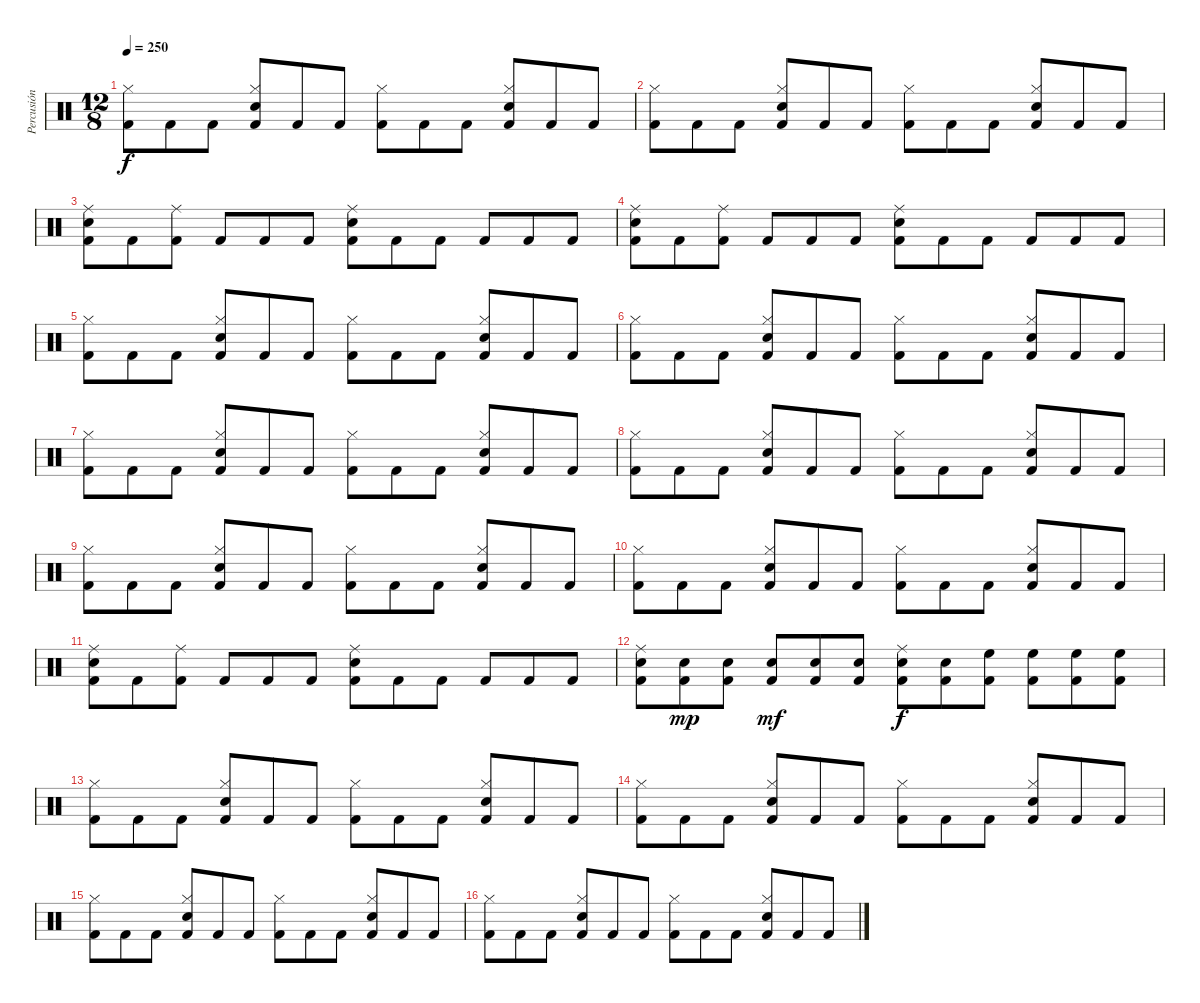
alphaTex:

\track ("Percusión" "Percusión") {instrument percussion}
\staff {score}
\articulation defaults
\ts (12 8)
\tempo 250
\clef neutral
\ks c
("Kick (hit) 2" "Hi-Hat (closed)").8{dy f} "Kick (hit) 2".8 "Kick (hit) 2".8 ("Kick (hit) 2" "Hi-Hat (closed)" "Snare (hit) 2").8 "Kick (hit) 2".8 "Kick (hit) 2".8 ("Kick (hit) 2" "Hi-Hat (closed)").8 "Kick (hit) 2".8 "Kick (hit) 2".8 ("Kick (hit) 2" "Hi-Hat (closed)" "Snare (hit) 2").8 "Kick (hit) 2".8 "Kick (hit) 2".8 |
("Kick (hit) 2" "Hi-Hat (closed)").8 "Kick (hit) 2".8 "Kick (hit) 2".8 ("Kick (hit) 2" "Hi-Hat (closed)" "Snare (hit) 2").8 "Kick (hit) 2".8 "Kick (hit) 2".8 ("Kick (hit) 2" "Hi-Hat (closed)").8 "Kick (hit) 2".8 "Kick (hit) 2".8 ("Kick (hit) 2" "Hi-Hat (closed)" "Snare (hit) 2").8 "Kick (hit) 2".8 "Kick (hit) 2".8 |
("Kick (hit) 2" "Ride (middle)" "Snare (hit) 2").8 "Kick (hit) 2".8 ("Kick (hit) 2" "Ride (middle)").8 "Kick (hit) 2".8 "Kick (hit) 2".8 "Kick (hit) 2".8 ("Kick (hit) 2" "Ride (middle)" "Snare (hit) 2").8 "Kick (hit) 2".8 "Kick (hit) 2".8 "Kick (hit) 2".8 "Kick (hit) 2".8 "Kick (hit) 2".8 |
("Kick (hit) 2" "Ride (middle)" "Snare (hit) 2").8 "Kick (hit) 2".8 ("Kick (hit) 2" "Ride (middle)").8 "Kick (hit) 2".8 "Kick (hit) 2".8 "Kick (hit) 2".8 ("Kick (hit) 2" "Ride (middle)" "Snare (hit) 2").8 "Kick (hit) 2".8 "Kick (hit) 2".8 "Kick (hit) 2".8 "Kick (hit) 2".8 "Kick (hit) 2".8 |
("Kick (hit) 2" "Hi-Hat (closed)").8 "Kick (hit) 2".8 "Kick (hit) 2".8 ("Kick (hit) 2" "Hi-Hat (closed)" "Snare (hit) 2").8 "Kick (hit) 2".8 "Kick (hit) 2".8 ("Kick (hit) 2" "Hi-Hat (closed)").8 "Kick (hit) 2".8 "Kick (hit) 2".8 ("Kick (hit) 2" "Hi-Hat (closed)" "Snare (hit) 2").8 "Kick (hit) 2".8 "Kick (hit) 2".8 |
("Kick (hit) 2" "Hi-Hat (closed)").8 "Kick (hit) 2".8 "Kick (hit) 2".8 ("Kick (hit) 2" "Hi-Hat (closed)" "Snare (hit) 2").8 "Kick (hit) 2".8 "Kick (hit) 2".8 ("Kick (hit) 2" "Hi-Hat (closed)").8 "Kick (hit) 2".8 "Kick (hit) 2".8 ("Kick (hit) 2" "Hi-Hat (closed)" "Snare (hit) 2").8 "Kick (hit) 2".8 "Kick (hit) 2".8 |
("Kick (hit) 2" "Hi-Hat (closed)").8 "Kick (hit) 2".8 "Kick (hit) 2".8 ("Kick (hit) 2" "Hi-Hat (closed)" "Snare (hit) 2").8 "Kick (hit) 2".8 "Kick (hit) 2".8 ("Kick (hit) 2" "Hi-Hat (closed)").8 "Kick (hit) 2".8 "Kick (hit) 2".8 ("Kick (hit) 2" "Hi-Hat (closed)" "Snare (hit) 2").8 "Kick (hit) 2".8 "Kick (hit) 2".8 |
("Kick (hit) 2" "Hi-Hat (closed)").8 "Kick (hit) 2".8 "Kick (hit) 2".8 ("Kick (hit) 2" "Hi-Hat (closed)" "Snare (hit) 2").8 "Kick (hit) 2".8 "Kick (hit) 2".8 ("Kick (hit) 2" "Hi-Hat (closed)").8 "Kick (hit) 2".8 "Kick (hit) 2".8 ("Kick (hit) 2" "Hi-Hat (closed)" "Snare (hit) 2").8 "Kick (hit) 2".8 "Kick (hit) 2".8 |
("Kick (hit) 2" "Hi-Hat (closed)").8 "Kick (hit) 2".8 "Kick (hit) 2".8 ("Kick (hit) 2" "Hi-Hat (closed)" "Snare (hit) 2").8 "Kick (hit) 2".8 "Kick (hit) 2".8 ("Kick (hit) 2" "Hi-Hat (closed)").8 "Kick (hit) 2".8 "Kick (hit) 2".8 ("Kick (hit) 2" "Hi-Hat (closed)" "Snare (hit) 2").8 "Kick (hit) 2".8 "Kick (hit) 2".8 |
("Kick (hit) 2" "Hi-Hat (closed)").8 "Kick (hit) 2".8 "Kick (hit) 2".8 ("Kick (hit) 2" "Hi-Hat (closed)" "Snare (hit) 2").8 "Kick (hit) 2".8 "Kick (hit) 2".8 ("Kick (hit) 2" "Hi-Hat (closed)").8 "Kick (hit) 2".8 "Kick (hit) 2".8 ("Kick (hit) 2" "Hi-Hat (closed)" "Snare (hit) 2").8 "Kick (hit) 2".8 "Kick (hit) 2".8 |
("Kick (hit) 2" "Ride (middle)" "Snare (hit) 2").8 "Kick (hit) 2".8 ("Kick (hit) 2" "Ride (middle)").8 "Kick (hit) 2".8 "Kick (hit) 2".8 "Kick (hit) 2".8 ("Kick (hit) 2" "Ride (middle)" "Snare (hit) 2").8 "Kick (hit) 2".8 "Kick (hit) 2".8 "Kick (hit) 2".8 "Kick (hit) 2".8 "Kick (hit) 2".8 |
("Kick (hit) 2" "Ride (middle)" "Snare (hit) 2").8 ("Kick (hit) 2" "Snare (hit) 2").8{dy mp} ("Kick (hit) 2" "Snare (hit) 2").8 ("Kick (hit) 2" "Snare (hit) 2").8{dy mf} ("Kick (hit) 2" "Snare (hit) 2").8 ("Kick (hit) 2" "Snare (hit) 2").8 ("Kick (hit) 2" "Ride (middle)" "Snare (hit) 2").8{dy f} ("Kick (hit) 2" "Snare (hit) 2").8 ("Kick (hit) 2" "High Floor Tom (hit)").8 ("Kick (hit) 2" "High Floor Tom (hit)").8 ("Kick (hit) 2" "High Floor Tom (hit)").8 ("Kick (hit) 2" "High Floor Tom (hit)").8 |
("Kick (hit) 2" "Hi-Hat (closed)").8 "Kick (hit) 2".8 "Kick (hit) 2".8 ("Kick (hit) 2" "Hi-Hat (closed)" "Snare (hit) 2").8 "Kick (hit) 2".8 "Kick (hit) 2".8 ("Kick (hit) 2" "Hi-Hat (closed)").8 "Kick (hit) 2".8 "Kick (hit) 2".8 ("Kick (hit) 2" "Hi-Hat (closed)" "Snare (hit) 2").8 "Kick (hit) 2".8 "Kick (hit) 2".8 |
("Kick (hit) 2" "Hi-Hat (closed)").8 "Kick (hit) 2".8 "Kick (hit) 2".8 ("Kick (hit) 2" "Hi-Hat (closed)" "Snare (hit) 2").8 "Kick (hit) 2".8 "Kick (hit) 2".8 ("Kick (hit) 2" "Hi-Hat (closed)").8 "Kick (hit) 2".8 "Kick (hit) 2".8 ("Kick (hit) 2" "Hi-Hat (closed)" "Snare (hit) 2").8 "Kick (hit) 2".8 "Kick (hit) 2".8 |
("Kick (hit) 2" "Hi-Hat (closed)").8 "Kick (hit) 2".8 "Kick (hit) 2".8 ("Kick (hit) 2" "Hi-Hat (closed)" "Snare (hit) 2").8 "Kick (hit) 2".8 "Kick (hit) 2".8 ("Kick (hit) 2" "Hi-Hat (closed)").8 "Kick (hit) 2".8 "Kick (hit) 2".8 ("Kick (hit) 2" "Hi-Hat (closed)" "Snare (hit) 2").8 "Kick (hit) 2".8 "Kick (hit) 2".8 |
("Kick (hit) 2" "Hi-Hat (closed)").8 "Kick (hit) 2".8 "Kick (hit) 2".8 ("Kick (hit) 2" "Hi-Hat (closed)" "Snare (hit) 2").8 "Kick (hit) 2".8 "Kick (hit) 2".8 ("Kick (hit) 2" "Hi-Hat (closed)").8 "Kick (hit) 2".8 "Kick (hit) 2".8 ("Kick (hit) 2" "Hi-Hat (closed)" "Snare (hit) 2").8 "Kick (hit) 2".8 "Kick (hit) 2".8
